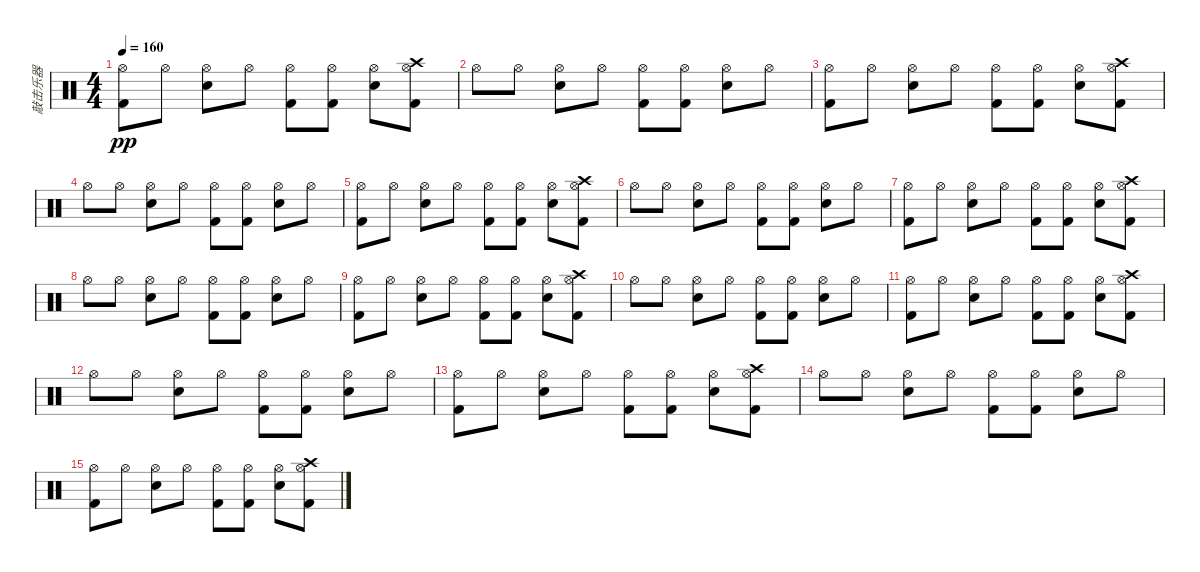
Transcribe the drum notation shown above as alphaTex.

\track ("敲击乐器" "敲击乐器") {instrument percussion}
\staff {score}
\articulation defaults
\ts (4 4)
\tempo 160
\clef neutral
\ks c
("Hi-Hat (open)" "Kick (hit) 2").8{dy pp} "Hi-Hat (open)".8 ("Snare (hit) 2" "Hi-Hat (open)").8 "Hi-Hat (open)".8 ("Hi-Hat (open)" "Kick (hit) 2").8 ("Hi-Hat (open)" "Kick (hit) 2").8 ("Snare (hit) 2" "Hi-Hat (open)").8 ("Crash high (hit)" "Hi-Hat (open)" "Kick (hit) 2").8 |
"Hi-Hat (open)".8 "Hi-Hat (open)".8 ("Snare (hit) 2" "Hi-Hat (open)").8 "Hi-Hat (open)".8 ("Hi-Hat (open)" "Kick (hit) 2").8 ("Hi-Hat (open)" "Kick (hit) 2").8 ("Snare (hit) 2" "Hi-Hat (open)").8 "Hi-Hat (open)".8 |
("Hi-Hat (open)" "Kick (hit) 2").8 "Hi-Hat (open)".8 ("Snare (hit) 2" "Hi-Hat (open)").8 "Hi-Hat (open)".8 ("Hi-Hat (open)" "Kick (hit) 2").8 ("Hi-Hat (open)" "Kick (hit) 2").8 ("Snare (hit) 2" "Hi-Hat (open)").8 ("Crash high (hit)" "Hi-Hat (open)" "Kick (hit) 2").8 |
"Hi-Hat (open)".8 "Hi-Hat (open)".8 ("Snare (hit) 2" "Hi-Hat (open)").8 "Hi-Hat (open)".8 ("Hi-Hat (open)" "Kick (hit) 2").8 ("Hi-Hat (open)" "Kick (hit) 2").8 ("Snare (hit) 2" "Hi-Hat (open)").8 "Hi-Hat (open)".8 |
("Hi-Hat (open)" "Kick (hit) 2").8 "Hi-Hat (open)".8 ("Snare (hit) 2" "Hi-Hat (open)").8 "Hi-Hat (open)".8 ("Hi-Hat (open)" "Kick (hit) 2").8 ("Hi-Hat (open)" "Kick (hit) 2").8 ("Snare (hit) 2" "Hi-Hat (open)").8 ("Crash high (hit)" "Hi-Hat (open)" "Kick (hit) 2").8 |
"Hi-Hat (open)".8 "Hi-Hat (open)".8 ("Snare (hit) 2" "Hi-Hat (open)").8 "Hi-Hat (open)".8 ("Hi-Hat (open)" "Kick (hit) 2").8 ("Hi-Hat (open)" "Kick (hit) 2").8 ("Snare (hit) 2" "Hi-Hat (open)").8 "Hi-Hat (open)".8 |
("Hi-Hat (open)" "Kick (hit) 2").8 "Hi-Hat (open)".8 ("Snare (hit) 2" "Hi-Hat (open)").8 "Hi-Hat (open)".8 ("Hi-Hat (open)" "Kick (hit) 2").8 ("Hi-Hat (open)" "Kick (hit) 2").8 ("Snare (hit) 2" "Hi-Hat (open)").8 ("Crash high (hit)" "Hi-Hat (open)" "Kick (hit) 2").8 |
"Hi-Hat (open)".8 "Hi-Hat (open)".8 ("Snare (hit) 2" "Hi-Hat (open)").8 "Hi-Hat (open)".8 ("Hi-Hat (open)" "Kick (hit) 2").8 ("Hi-Hat (open)" "Kick (hit) 2").8 ("Snare (hit) 2" "Hi-Hat (open)").8 "Hi-Hat (open)".8 |
("Hi-Hat (open)" "Kick (hit) 2").8 "Hi-Hat (open)".8 ("Snare (hit) 2" "Hi-Hat (open)").8 "Hi-Hat (open)".8 ("Hi-Hat (open)" "Kick (hit) 2").8 ("Hi-Hat (open)" "Kick (hit) 2").8 ("Snare (hit) 2" "Hi-Hat (open)").8 ("Crash high (hit)" "Hi-Hat (open)" "Kick (hit) 2").8 |
"Hi-Hat (open)".8 "Hi-Hat (open)".8 ("Snare (hit) 2" "Hi-Hat (open)").8 "Hi-Hat (open)".8 ("Hi-Hat (open)" "Kick (hit) 2").8 ("Hi-Hat (open)" "Kick (hit) 2").8 ("Snare (hit) 2" "Hi-Hat (open)").8 "Hi-Hat (open)".8 |
("Hi-Hat (open)" "Kick (hit) 2").8 "Hi-Hat (open)".8 ("Snare (hit) 2" "Hi-Hat (open)").8 "Hi-Hat (open)".8 ("Hi-Hat (open)" "Kick (hit) 2").8 ("Hi-Hat (open)" "Kick (hit) 2").8 ("Snare (hit) 2" "Hi-Hat (open)").8 ("Crash high (hit)" "Hi-Hat (open)" "Kick (hit) 2").8 |
"Hi-Hat (open)".8 "Hi-Hat (open)".8 ("Snare (hit) 2" "Hi-Hat (open)").8 "Hi-Hat (open)".8 ("Hi-Hat (open)" "Kick (hit) 2").8 ("Hi-Hat (open)" "Kick (hit) 2").8 ("Snare (hit) 2" "Hi-Hat (open)").8 "Hi-Hat (open)".8 |
("Hi-Hat (open)" "Kick (hit) 2").8 "Hi-Hat (open)".8 ("Snare (hit) 2" "Hi-Hat (open)").8 "Hi-Hat (open)".8 ("Hi-Hat (open)" "Kick (hit) 2").8 ("Hi-Hat (open)" "Kick (hit) 2").8 ("Snare (hit) 2" "Hi-Hat (open)").8 ("Crash high (hit)" "Hi-Hat (open)" "Kick (hit) 2").8 |
"Hi-Hat (open)".8 "Hi-Hat (open)".8 ("Snare (hit) 2" "Hi-Hat (open)").8 "Hi-Hat (open)".8 ("Hi-Hat (open)" "Kick (hit) 2").8 ("Hi-Hat (open)" "Kick (hit) 2").8 ("Snare (hit) 2" "Hi-Hat (open)").8 "Hi-Hat (open)".8 |
("Hi-Hat (open)" "Kick (hit) 2").8 "Hi-Hat (open)".8 ("Snare (hit) 2" "Hi-Hat (open)").8 "Hi-Hat (open)".8 ("Hi-Hat (open)" "Kick (hit) 2").8 ("Hi-Hat (open)" "Kick (hit) 2").8 ("Snare (hit) 2" "Hi-Hat (open)").8 ("Crash high (hit)" "Hi-Hat (open)" "Kick (hit) 2").8
